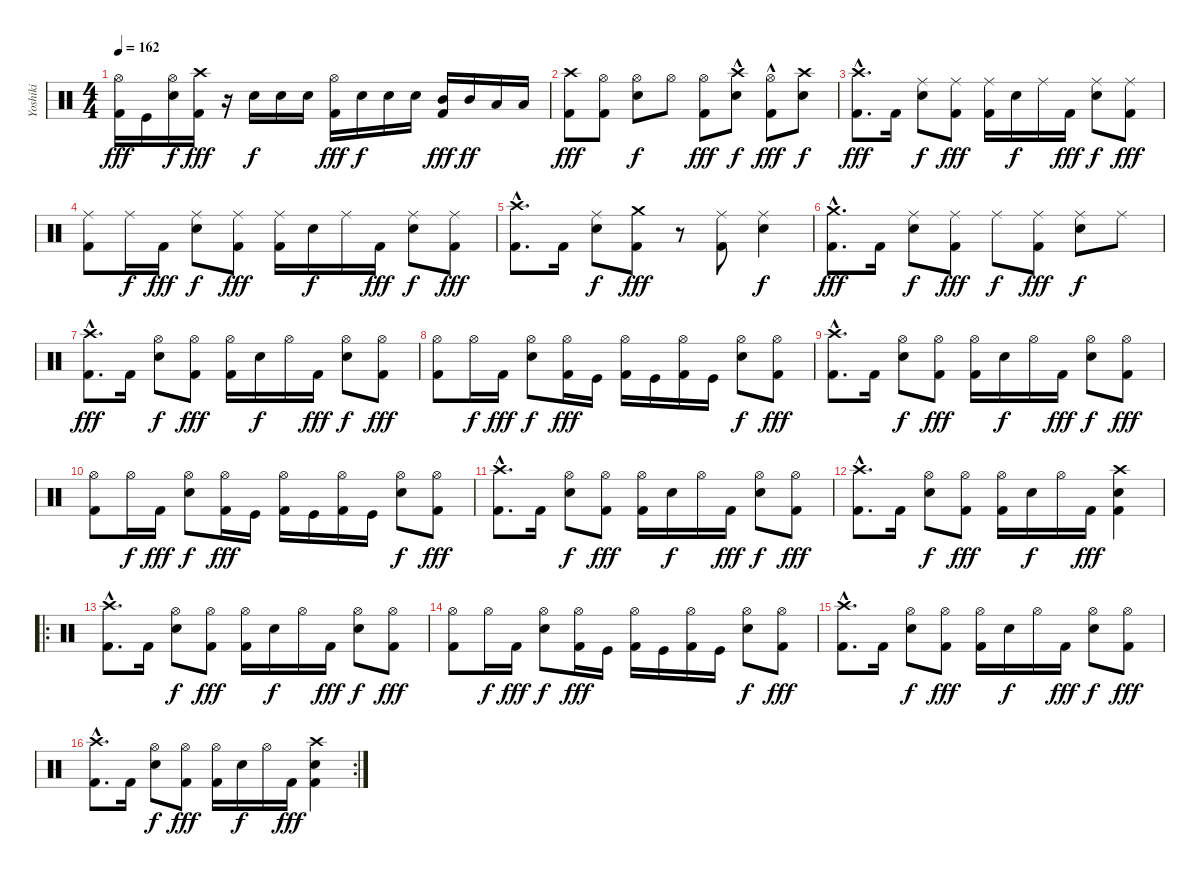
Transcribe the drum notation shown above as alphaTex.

\track ("Yoshiki" "Yoshiki") {instrument percussion}
\staff {score}
\articulation defaults
\ts (4 4)
\tempo 162
\clef neutral
\ks c
("Hi-Hat (open)" "Kick (hit) 2").16{dy fff} "Kick (hit)".16 ("Hi-Hat (open)" "Electric Snare (hit)").16{dy f} ("Crash high (hit)" "Kick (hit) 2").16{dy fff} r.16 "Electric Snare (hit)".16{dy f} "Electric Snare (hit)".16 "Electric Snare (hit)".16 ("Hi-Hat (open)" "Kick (hit) 2").16{dy fff} "Electric Snare (hit)".16{dy f} "Electric Snare (hit)".16 "Electric Snare (hit)".16 ("Mid Tom (hit)" "Kick (hit) 2").16{dy fff} "Mid Tom (hit)".16{dy ff} "Low Tom (hit)".16 "Low Tom (hit)".16 |
("Crash high (hit)" "Kick (hit) 2").8{dy fff} ("Hi-Hat (open)" "Kick (hit) 2").8 ("Hi-Hat (open)" "Electric Snare (hit)").8{dy f} "Hi-Hat (open)".8 ("Hi-Hat (open)" "Kick (hit) 2").8{dy fff} ("Crash high (hit)"{hac} "Electric Snare (hit)").8{dy f} ("Hi-Hat (open)"{hac} "Kick (hit) 2").8{dy fff} ("Crash high (hit)" "Electric Snare (hit)").8{dy f} |
("Crash high (hit)"{hac} "Kick (hit) 2"{hac}).8{d dy fff} "Kick (hit) 2".16 ("Ride (middle)" "Electric Snare (hit)").8{dy f} ("Ride (middle)" "Kick (hit) 2").8{dy fff} ("Ride (middle)" "Kick (hit) 2").16 "Electric Snare (hit)".16{dy f} "Ride (middle)".16 "Kick (hit) 2".16{dy fff} ("Ride (middle)" "Electric Snare (hit)").8{dy f} ("Ride (middle)" "Kick (hit) 2").8{dy fff} |
("Ride (middle)" "Kick (hit) 2").8 "Ride (middle)".16{dy f} "Kick (hit) 2".16{dy fff} ("Ride (middle)" "Electric Snare (hit)").8{dy f} ("Ride (middle)" "Kick (hit) 2").8{dy fff} ("Ride (middle)" "Kick (hit) 2").16 "Electric Snare (hit)".16{dy f} "Ride (middle)".16 "Kick (hit) 2".16{dy fff} ("Ride (middle)" "Electric Snare (hit)").8{dy f} ("Ride (middle)" "Kick (hit) 2").8{dy fff} |
("Crash high (hit)"{hac} "Kick (hit) 2"{hac}).8{d} "Kick (hit) 2".16 ("Ride (middle)" "Electric Snare (hit)").8{dy f} ("Crash medium (hit)" "Kick (hit) 2").8{dy fff} r.8 ("Ride (middle)" "Kick (hit) 2").8 ("Ride (middle)" "Electric Snare (hit)").4{dy f} |
("Crash medium (hit)"{hac} "Kick (hit) 2"{hac}).8{d dy fff} "Kick (hit) 2".16 ("Ride (middle)" "Electric Snare (hit)").8{dy f} ("Ride (middle)" "Kick (hit) 2").8{dy fff} "Ride (middle)".8{dy f} ("Ride (middle)" "Kick (hit) 2").8{dy fff} ("Ride (middle)" "Electric Snare (hit)").8{dy f} "Ride (middle)".8 |
("Crash high (hit)"{hac} "Kick (hit) 2"{hac}).8{d dy fff} "Kick (hit) 2".16 ("Hi-Hat (open)" "Electric Snare (hit)").8{dy f} ("Hi-Hat (open)" "Kick (hit) 2").8{dy fff} ("Hi-Hat (open)" "Kick (hit) 2").16 "Electric Snare (hit)".16{dy f} "Hi-Hat (open)".16 "Kick (hit) 2".16{dy fff} ("Hi-Hat (open)" "Electric Snare (hit)").8{dy f} ("Hi-Hat (open)" "Kick (hit) 2").8{dy fff} |
("Hi-Hat (open)" "Kick (hit) 2").8 "Hi-Hat (open)".16{dy f} "Kick (hit) 2".16{dy fff} ("Hi-Hat (open)" "Electric Snare (hit)").8{dy f} ("Hi-Hat (open)" "Kick (hit) 2").16{dy fff} "Kick (hit)".16 ("Hi-Hat (open)" "Kick (hit) 2").16 "Kick (hit)".16 ("Hi-Hat (open)" "Kick (hit) 2").16 "Kick (hit)".16 ("Hi-Hat (open)" "Electric Snare (hit)").8{dy f} ("Hi-Hat (open)" "Kick (hit) 2").8{dy fff} |
("Crash high (hit)"{hac} "Kick (hit) 2"{hac}).8{d} "Kick (hit) 2".16 ("Hi-Hat (open)" "Electric Snare (hit)").8{dy f} ("Hi-Hat (open)" "Kick (hit) 2").8{dy fff} ("Hi-Hat (open)" "Kick (hit) 2").16 "Electric Snare (hit)".16{dy f} "Hi-Hat (open)".16 "Kick (hit) 2".16{dy fff} ("Hi-Hat (open)" "Electric Snare (hit)").8{dy f} ("Hi-Hat (open)" "Kick (hit) 2").8{dy fff} |
("Hi-Hat (open)" "Kick (hit) 2").8 "Hi-Hat (open)".16{dy f} "Kick (hit) 2".16{dy fff} ("Hi-Hat (open)" "Electric Snare (hit)").8{dy f} ("Hi-Hat (open)" "Kick (hit) 2").16{dy fff} "Kick (hit)".16 ("Hi-Hat (open)" "Kick (hit) 2").16 "Kick (hit)".16 ("Hi-Hat (open)" "Kick (hit) 2").16 "Kick (hit)".16 ("Hi-Hat (open)" "Electric Snare (hit)").8{dy f} ("Hi-Hat (open)" "Kick (hit) 2").8{dy fff} |
("Crash high (hit)"{hac} "Kick (hit) 2"{hac}).8{d} "Kick (hit) 2".16 ("Hi-Hat (open)" "Electric Snare (hit)").8{dy f} ("Hi-Hat (open)" "Kick (hit) 2").8{dy fff} ("Hi-Hat (open)" "Kick (hit) 2").16 "Electric Snare (hit)".16{dy f} "Hi-Hat (open)".16 "Kick (hit) 2".16{dy fff} ("Hi-Hat (open)" "Electric Snare (hit)").8{dy f} ("Hi-Hat (open)" "Kick (hit) 2").8{dy fff} |
("Crash high (hit)"{hac} "Kick (hit) 2"{hac}).8{d} "Kick (hit) 2".16 ("Hi-Hat (open)" "Electric Snare (hit)").8{dy f} ("Hi-Hat (open)" "Kick (hit) 2").8{dy fff} ("Hi-Hat (open)" "Kick (hit) 2").16 "Electric Snare (hit)".16{dy f} "Hi-Hat (open)".16 "Kick (hit) 2".16{dy fff} ("Crash high (hit)" "Electric Snare (hit)" "Kick (hit) 2").4 |
\ro
("Crash high (hit)"{hac} "Kick (hit) 2"{hac}).8{d} "Kick (hit) 2".16 ("Hi-Hat (open)" "Electric Snare (hit)").8{dy f} ("Hi-Hat (open)" "Kick (hit) 2").8{dy fff} ("Hi-Hat (open)" "Kick (hit) 2").16 "Electric Snare (hit)".16{dy f} "Hi-Hat (open)".16 "Kick (hit) 2".16{dy fff} ("Hi-Hat (open)" "Electric Snare (hit)").8{dy f} ("Hi-Hat (open)" "Kick (hit) 2").8{dy fff} |
("Hi-Hat (open)" "Kick (hit) 2").8 "Hi-Hat (open)".16{dy f} "Kick (hit) 2".16{dy fff} ("Hi-Hat (open)" "Electric Snare (hit)").8{dy f} ("Hi-Hat (open)" "Kick (hit) 2").16{dy fff} "Kick (hit)".16 ("Hi-Hat (open)" "Kick (hit) 2").16 "Kick (hit)".16 ("Hi-Hat (open)" "Kick (hit) 2").16 "Kick (hit)".16 ("Hi-Hat (open)" "Electric Snare (hit)").8{dy f} ("Hi-Hat (open)" "Kick (hit) 2").8{dy fff} |
("Crash high (hit)"{hac} "Kick (hit) 2"{hac}).8{d} "Kick (hit) 2".16 ("Hi-Hat (open)" "Electric Snare (hit)").8{dy f} ("Hi-Hat (open)" "Kick (hit) 2").8{dy fff} ("Hi-Hat (open)" "Kick (hit) 2").16 "Electric Snare (hit)".16{dy f} "Hi-Hat (open)".16 "Kick (hit) 2".16{dy fff} ("Hi-Hat (open)" "Electric Snare (hit)").8{dy f} ("Hi-Hat (open)" "Kick (hit) 2").8{dy fff} |
\rc 2
("Crash high (hit)"{hac} "Kick (hit) 2"{hac}).8{d} "Kick (hit) 2".16 ("Hi-Hat (open)" "Electric Snare (hit)").8{dy f} ("Hi-Hat (open)" "Kick (hit) 2").8{dy fff} ("Hi-Hat (open)" "Kick (hit) 2").16 "Electric Snare (hit)".16{dy f} "Hi-Hat (open)".16 "Kick (hit) 2".16{dy fff} ("Crash high (hit)" "Electric Snare (hit)" "Kick (hit) 2").4
